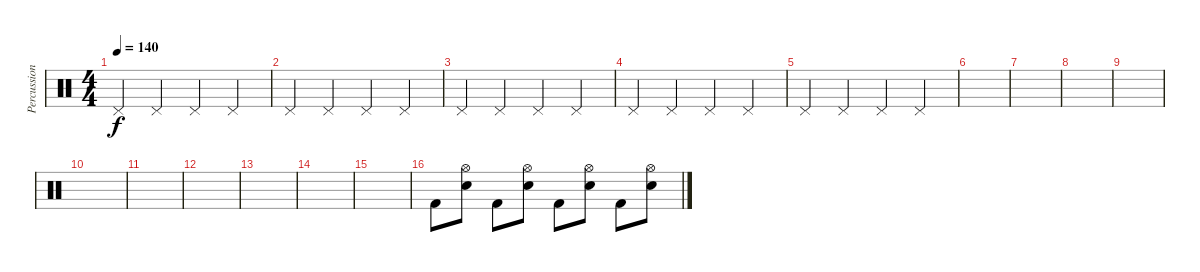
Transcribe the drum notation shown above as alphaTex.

\track ("Percussion" "Percussion") {instrument percussion}
\staff {score}
\articulation defaults
\ts (4 4)
\tempo 140
\clef neutral
\ks c "Pedal Hi-Hat (hit)".4{dy f} "Pedal Hi-Hat (hit)".4 "Pedal Hi-Hat (hit)".4 "Pedal Hi-Hat (hit)".4
|
"Pedal Hi-Hat (hit)".4 "Pedal Hi-Hat (hit)".4 "Pedal Hi-Hat (hit)".4 "Pedal Hi-Hat (hit)".4 |
"Pedal Hi-Hat (hit)".4 "Pedal Hi-Hat (hit)".4 "Pedal Hi-Hat (hit)".4 "Pedal Hi-Hat (hit)".4 |
"Pedal Hi-Hat (hit)".4 "Pedal Hi-Hat (hit)".4 "Pedal Hi-Hat (hit)".4 "Pedal Hi-Hat (hit)".4 |
"Pedal Hi-Hat (hit)".4 "Pedal Hi-Hat (hit)".4 "Pedal Hi-Hat (hit)".4 "Pedal Hi-Hat (hit)".4 |
|
|
|
|
|
|
|
|
|
|
"Kick (hit) 2".8 ("Hi-Hat (open)" "Hand Clap (hit)").8 "Kick (hit) 2".8 ("Hi-Hat (open)" "Hand Clap (hit)").8 "Kick (hit) 2".8 ("Hi-Hat (open)" "Hand Clap (hit)").8 "Kick (hit) 2".8 ("Hi-Hat (open)" "Hand Clap (hit)").8
